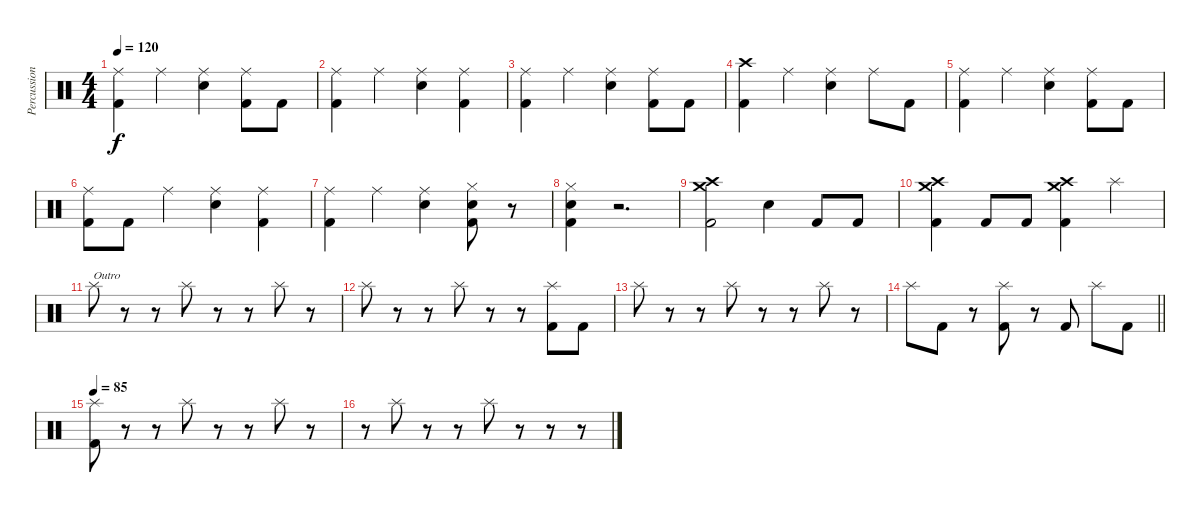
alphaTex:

\track ("Percussion" "Percussion") {instrument percussion}
\staff {score}
\articulation defaults
\ts (4 4)
\tempo 120
\clef neutral
\ks c
("Kick (hit) 2" "Ride (middle)").4{dy f} "Ride (middle)".4 ("Snare (hit) 2" "Ride (middle)").4 ("Kick (hit) 2" "Ride (middle)").8 "Kick (hit) 2".8 |
("Kick (hit) 2" "Ride (middle)").4 "Ride (middle)".4 ("Snare (hit) 2" "Ride (middle)").4 ("Kick (hit) 2" "Ride (middle)").4 |
("Kick (hit) 2" "Ride (middle)").4 "Ride (middle)".4 ("Snare (hit) 2" "Ride (middle)").4 ("Kick (hit) 2" "Ride (middle)").8 "Kick (hit) 2".8 |
("Kick (hit) 2" "Crash high (hit)").4 "Ride (middle)".4 ("Snare (hit) 2" "Ride (middle)").4 "Ride (middle)".8 "Kick (hit) 2".8 |
("Kick (hit) 2" "Ride (middle)").4 "Ride (middle)".4 ("Snare (hit) 2" "Ride (middle)").4 ("Kick (hit) 2" "Ride (middle)").8 "Kick (hit) 2".8 |
("Kick (hit) 2" "Ride (middle)").8 "Kick (hit) 2".8 "Ride (middle)".4 ("Snare (hit) 2" "Ride (middle)").4 ("Kick (hit) 2" "Ride (middle)").4 |
("Kick (hit) 2" "Ride (middle)").4 "Ride (middle)".4 ("Snare (hit) 2" "Ride (middle)").4 ("Snare (hit) 2" "Hi-Hat (closed)" "Kick (hit) 2").8 r.8 |
("Snare (hit) 2" "Hi-Hat (closed)" "Kick (hit) 2").4 r.2{d} |
("Crash high (hit)" "Kick (hit) 2" "Crash medium (hit)").2 "Snare (hit) 2".4 "Kick (hit) 2".8 "Kick (hit) 2".8 |
("Crash high (hit)" "Kick (hit) 2" "Crash medium (hit)").4 "Kick (hit) 2".8 "Kick (hit) 2".8 ("Crash high (hit)" "Kick (hit) 2" "Crash medium (hit)").4 "Splash (hit)".4 |
"Splash (hit)".8{txt "Outro"} r.8 r.8 "Splash (hit)".8 r.8 r.8 "Splash (hit)".8 r.8 |
"Splash (hit)".8 r.8 r.8 "Splash (hit)".8 r.8 r.8 ("Splash (hit)" "Kick (hit) 2").8 "Kick (hit) 2".8 |
"Splash (hit)".8 r.8 r.8 "Splash (hit)".8 r.8 r.8 "Splash (hit)".8 r.8 |
\barLineRight lightlight "Splash (hit)".8 "Kick (hit) 2".8
r.8 ("Splash (hit)" "Kick (hit) 2").8 r.8 "Kick (hit) 2".8 "Splash (hit)".8 "Kick (hit) 2".8 |
\tempo 85
("Splash (hit)" "Kick (hit) 2").8 r.8 r.8 "Splash (hit)".8 r.8 r.8 "Splash (hit)".8 r.8 |
r.8 "Splash (hit)".8 r.8 r.8 "Splash (hit)".8 r.8 r.8 r.8
